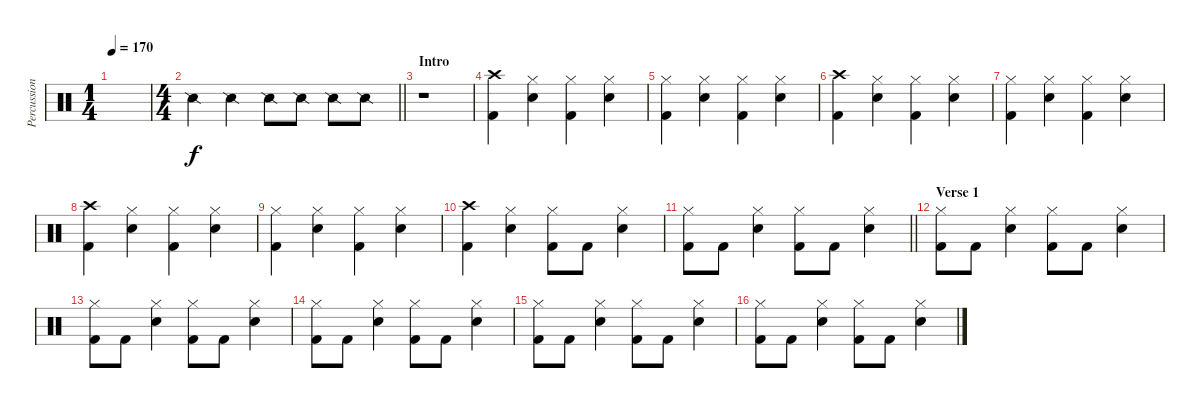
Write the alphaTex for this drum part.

\track ("Percussion" "Percussion") {instrument percussion}
\staff {score}
\articulation defaults
\ts (1 4)
\tempo 170
\clef neutral
\ks c
|
\ts (4 4)
\barLineRight lightlight "Snare (side stick) 2".4 "Snare (side stick) 2".4 "Snare (side stick) 2".8 "Snare (side stick) 2".8 "Snare (side stick) 2".8 "Snare (side stick) 2".8
|
\section ("" "Intro")
r.1 |
("Crash high (hit)" "Kick (hit) 2").4 ("Hi-Hat (closed)" "Electric Snare (hit)").4 ("Hi-Hat (closed)" "Kick (hit) 2").4 ("Hi-Hat (closed)" "Electric Snare (hit)").4 |
("Hi-Hat (closed)" "Kick (hit) 2").4 ("Hi-Hat (closed)" "Electric Snare (hit)").4 ("Hi-Hat (closed)" "Kick (hit) 2").4 ("Hi-Hat (closed)" "Electric Snare (hit)").4 |
("Crash high (hit)" "Kick (hit) 2").4 ("Hi-Hat (closed)" "Electric Snare (hit)").4 ("Hi-Hat (closed)" "Kick (hit) 2").4 ("Hi-Hat (closed)" "Electric Snare (hit)").4 |
("Hi-Hat (closed)" "Kick (hit) 2").4 ("Hi-Hat (closed)" "Electric Snare (hit)").4 ("Hi-Hat (closed)" "Kick (hit) 2").4 ("Hi-Hat (closed)" "Electric Snare (hit)").4 |
("Crash high (hit)" "Kick (hit) 2").4 ("Hi-Hat (closed)" "Electric Snare (hit)").4 ("Hi-Hat (closed)" "Kick (hit) 2").4 ("Hi-Hat (closed)" "Electric Snare (hit)").4 |
("Hi-Hat (closed)" "Kick (hit) 2").4 ("Hi-Hat (closed)" "Electric Snare (hit)").4 ("Hi-Hat (closed)" "Kick (hit) 2").4 ("Hi-Hat (closed)" "Electric Snare (hit)").4 |
("Crash high (hit)" "Kick (hit) 2").4 ("Hi-Hat (closed)" "Electric Snare (hit)").4 ("Hi-Hat (closed)" "Kick (hit) 2").8 "Kick (hit) 2".8 ("Hi-Hat (closed)" "Electric Snare (hit)").4 |
\barLineRight lightlight
("Hi-Hat (closed)" "Kick (hit) 2").8 "Kick (hit) 2".8 ("Hi-Hat (closed)" "Electric Snare (hit)").4 ("Hi-Hat (closed)" "Kick (hit) 2").8 "Kick (hit) 2".8 ("Hi-Hat (closed)" "Electric Snare (hit)").4 |
\section ("" "Verse 1")
("Hi-Hat (closed)" "Kick (hit) 2").8 "Kick (hit) 2".8 ("Hi-Hat (closed)" "Electric Snare (hit)").4 ("Hi-Hat (closed)" "Kick (hit) 2").8 "Kick (hit) 2".8 ("Hi-Hat (closed)" "Electric Snare (hit)").4 |
("Hi-Hat (closed)" "Kick (hit) 2").8 "Kick (hit) 2".8 ("Hi-Hat (closed)" "Electric Snare (hit)").4 ("Hi-Hat (closed)" "Kick (hit) 2").8 "Kick (hit) 2".8 ("Hi-Hat (closed)" "Electric Snare (hit)").4 |
("Hi-Hat (closed)" "Kick (hit) 2").8 "Kick (hit) 2".8 ("Hi-Hat (closed)" "Electric Snare (hit)").4 ("Hi-Hat (closed)" "Kick (hit) 2").8 "Kick (hit) 2".8 ("Hi-Hat (closed)" "Electric Snare (hit)").4 |
("Hi-Hat (closed)" "Kick (hit) 2").8 "Kick (hit) 2".8 ("Hi-Hat (closed)" "Electric Snare (hit)").4 ("Hi-Hat (closed)" "Kick (hit) 2").8 "Kick (hit) 2".8 ("Hi-Hat (closed)" "Electric Snare (hit)").4 |
("Hi-Hat (closed)" "Kick (hit) 2").8 "Kick (hit) 2".8 ("Hi-Hat (closed)" "Electric Snare (hit)").4 ("Hi-Hat (closed)" "Kick (hit) 2").8 "Kick (hit) 2".8 ("Hi-Hat (closed)" "Electric Snare (hit)").4
